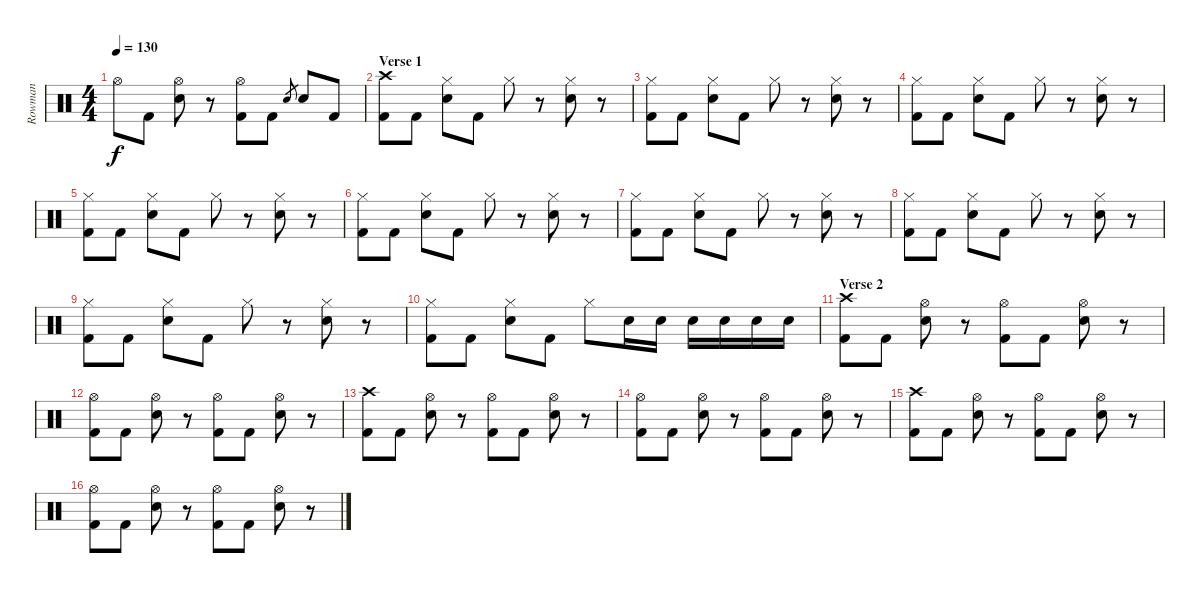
\track ("Rowman" "Rowman") {instrument percussion}
\staff {score}
\articulation defaults
\ts (4 4)
\tempo 130
\clef neutral
\ks c "Hi-Hat (open)".8{dy f} "Kick (hit) 2".8
("Electric Snare (hit)" "Hi-Hat (open)").8 r.8 ("Kick (hit) 2" "Hi-Hat (open)").8 "Kick (hit) 2".8 "Electric Snare (hit)".8{gr} "Electric Snare (hit)".8 "Kick (hit) 2".8 |
\section ("" "Verse 1")
("Kick (hit) 2" "Crash high (hit)").8 "Kick (hit) 2".8 ("Electric Snare (hit)" "Hi-Hat (closed)").8 "Kick (hit) 2".8 "Hi-Hat (closed)".8 r.8 ("Electric Snare (hit)" "Hi-Hat (closed)").8 r.8 |
("Kick (hit) 2" "Hi-Hat (closed)").8 "Kick (hit) 2".8 ("Electric Snare (hit)" "Hi-Hat (closed)").8 "Kick (hit) 2".8 "Hi-Hat (closed)".8 r.8 ("Electric Snare (hit)" "Hi-Hat (closed)").8 r.8 |
("Kick (hit) 2" "Hi-Hat (closed)").8 "Kick (hit) 2".8 ("Electric Snare (hit)" "Hi-Hat (closed)").8 "Kick (hit) 2".8 "Hi-Hat (closed)".8 r.8 ("Electric Snare (hit)" "Hi-Hat (closed)").8 r.8 |
("Kick (hit) 2" "Hi-Hat (closed)").8 "Kick (hit) 2".8 ("Electric Snare (hit)" "Hi-Hat (closed)").8 "Kick (hit) 2".8 "Hi-Hat (closed)".8 r.8 ("Electric Snare (hit)" "Hi-Hat (closed)").8 r.8 |
("Kick (hit) 2" "Hi-Hat (closed)").8 "Kick (hit) 2".8 ("Electric Snare (hit)" "Hi-Hat (closed)").8 "Kick (hit) 2".8 "Hi-Hat (closed)".8 r.8 ("Electric Snare (hit)" "Hi-Hat (closed)").8 r.8 |
("Kick (hit) 2" "Hi-Hat (closed)").8 "Kick (hit) 2".8 ("Electric Snare (hit)" "Hi-Hat (closed)").8 "Kick (hit) 2".8 "Hi-Hat (closed)".8 r.8 ("Electric Snare (hit)" "Hi-Hat (closed)").8 r.8 |
("Kick (hit) 2" "Hi-Hat (closed)").8 "Kick (hit) 2".8 ("Electric Snare (hit)" "Hi-Hat (closed)").8 "Kick (hit) 2".8 "Hi-Hat (closed)".8 r.8 ("Electric Snare (hit)" "Hi-Hat (closed)").8 r.8 |
("Kick (hit) 2" "Hi-Hat (closed)").8 "Kick (hit) 2".8 ("Electric Snare (hit)" "Hi-Hat (closed)").8 "Kick (hit) 2".8 "Hi-Hat (closed)".8 r.8 ("Electric Snare (hit)" "Hi-Hat (closed)").8 r.8 |
("Kick (hit) 2" "Hi-Hat (closed)").8 "Kick (hit) 2".8 ("Electric Snare (hit)" "Hi-Hat (closed)").8 "Kick (hit) 2".8 "Hi-Hat (closed)".8 "Electric Snare (hit)".16 "Electric Snare (hit)".16 "Electric Snare (hit)".16 "Electric Snare (hit)".16 "Electric Snare (hit)".16 "Electric Snare (hit)".16 |
\section ("" "Verse 2")
("Kick (hit) 2" "Crash high (hit)").8 "Kick (hit) 2".8 ("Electric Snare (hit)" "Hi-Hat (open)").8 r.8 ("Kick (hit) 2" "Hi-Hat (open)").8 "Kick (hit) 2".8 ("Electric Snare (hit)" "Hi-Hat (open)").8 r.8 |
("Kick (hit) 2" "Hi-Hat (open)").8 "Kick (hit) 2".8 ("Electric Snare (hit)" "Hi-Hat (open)").8 r.8 ("Kick (hit) 2" "Hi-Hat (open)").8 "Kick (hit) 2".8 ("Electric Snare (hit)" "Hi-Hat (open)").8 r.8 |
("Kick (hit) 2" "Crash high (hit)").8 "Kick (hit) 2".8 ("Electric Snare (hit)" "Hi-Hat (open)").8 r.8 ("Kick (hit) 2" "Hi-Hat (open)").8 "Kick (hit) 2".8 ("Electric Snare (hit)" "Hi-Hat (open)").8 r.8 |
("Kick (hit) 2" "Hi-Hat (open)").8 "Kick (hit) 2".8 ("Electric Snare (hit)" "Hi-Hat (open)").8 r.8 ("Kick (hit) 2" "Hi-Hat (open)").8 "Kick (hit) 2".8 ("Electric Snare (hit)" "Hi-Hat (open)").8 r.8 |
("Kick (hit) 2" "Crash high (hit)").8 "Kick (hit) 2".8 ("Electric Snare (hit)" "Hi-Hat (open)").8 r.8 ("Kick (hit) 2" "Hi-Hat (open)").8 "Kick (hit) 2".8 ("Electric Snare (hit)" "Hi-Hat (open)").8 r.8 |
("Kick (hit) 2" "Hi-Hat (open)").8 "Kick (hit) 2".8 ("Electric Snare (hit)" "Hi-Hat (open)").8 r.8 ("Kick (hit) 2" "Hi-Hat (open)").8 "Kick (hit) 2".8 ("Electric Snare (hit)" "Hi-Hat (open)").8 r.8
